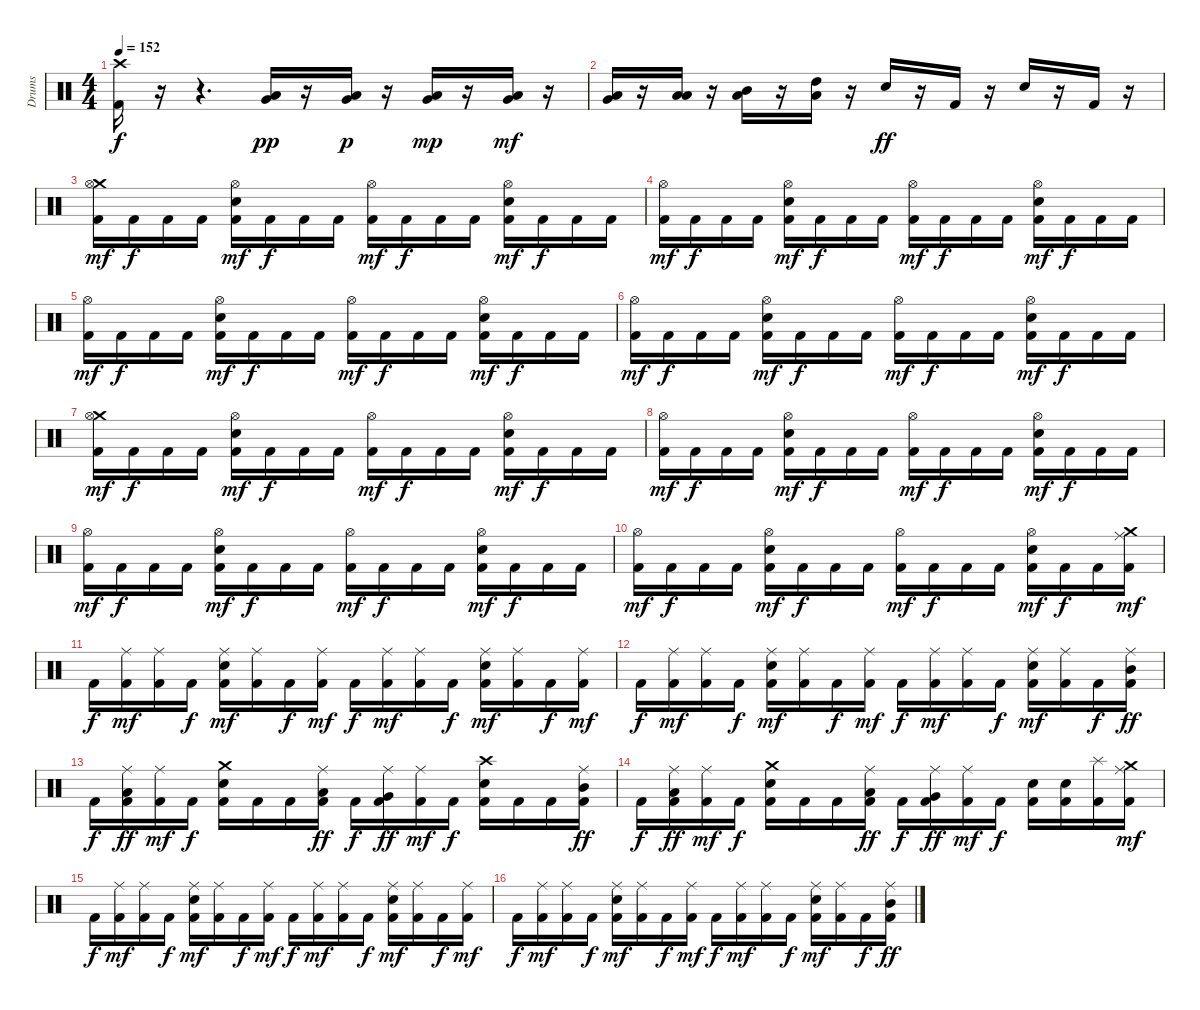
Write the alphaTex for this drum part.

\track ("Drums" "Drums") {instrument percussion}
\staff {score}
\articulation defaults
\ts (4 4)
\tempo 152
\clef neutral
\ks c
("Crash high (hit)" "Kick (hit) 2").16{dy f} r.16 r.4{d} ("Very Low Tom (hit)" "Low Floor Tom (hit)").16{dy pp} r.16 ("Very Low Tom (hit)" "Low Floor Tom (hit)").16{dy p} r.16 ("Very Low Tom (hit)" "Low Floor Tom (hit)").16{dy mp} r.16 ("Very Low Tom (hit)" "Low Floor Tom (hit)").16{dy mf} r.16 |
("Very Low Tom (hit)" "Low Floor Tom (hit)").16 r.16 ("Low Tom (hit)" "Low Floor Tom (hit)").16 r.16 ("Mid Tom (hit)" "Low Floor Tom (hit)").16 r.16 ("High Tom (hit)" "Low Floor Tom (hit)").16 r.16 "Snare (hit) 2".16{dy ff} r.16 "Kick (hit) 2".16 r.16 "Snare (hit) 2".16 r.16 "Kick (hit) 2".16 r.16 |
("Crash medium (hit)" "Hi-Hat (open)" "Kick (hit) 2").16{dy mf} "Kick (hit) 2".16{dy f} "Kick (hit) 2".16 "Kick (hit) 2".16 ("Hi-Hat (open)" "Snare (hit) 2" "Kick (hit) 2").16{dy mf} "Kick (hit) 2".16{dy f} "Kick (hit) 2".16 "Kick (hit) 2".16 ("Hi-Hat (open)" "Kick (hit) 2").16{dy mf} "Kick (hit) 2".16{dy f} "Kick (hit) 2".16 "Kick (hit) 2".16 ("Hi-Hat (open)" "Snare (hit) 2" "Kick (hit) 2").16{dy mf} "Kick (hit) 2".16{dy f} "Kick (hit) 2".16 "Kick (hit) 2".16 |
("Hi-Hat (open)" "Kick (hit) 2").16{dy mf} "Kick (hit) 2".16{dy f} "Kick (hit) 2".16 "Kick (hit) 2".16 ("Hi-Hat (open)" "Snare (hit) 2" "Kick (hit) 2").16{dy mf} "Kick (hit) 2".16{dy f} "Kick (hit) 2".16 "Kick (hit) 2".16 ("Hi-Hat (open)" "Kick (hit) 2").16{dy mf} "Kick (hit) 2".16{dy f} "Kick (hit) 2".16 "Kick (hit) 2".16 ("Hi-Hat (open)" "Snare (hit) 2" "Kick (hit) 2").16{dy mf} "Kick (hit) 2".16{dy f} "Kick (hit) 2".16 "Kick (hit) 2".16 |
("Hi-Hat (open)" "Kick (hit) 2").16{dy mf} "Kick (hit) 2".16{dy f} "Kick (hit) 2".16 "Kick (hit) 2".16 ("Hi-Hat (open)" "Snare (hit) 2" "Kick (hit) 2").16{dy mf} "Kick (hit) 2".16{dy f} "Kick (hit) 2".16 "Kick (hit) 2".16 ("Hi-Hat (open)" "Kick (hit) 2").16{dy mf} "Kick (hit) 2".16{dy f} "Kick (hit) 2".16 "Kick (hit) 2".16 ("Hi-Hat (open)" "Snare (hit) 2" "Kick (hit) 2").16{dy mf} "Kick (hit) 2".16{dy f} "Kick (hit) 2".16 "Kick (hit) 2".16 |
("Hi-Hat (open)" "Kick (hit) 2").16{dy mf} "Kick (hit) 2".16{dy f} "Kick (hit) 2".16 "Kick (hit) 2".16 ("Hi-Hat (open)" "Snare (hit) 2" "Kick (hit) 2").16{dy mf} "Kick (hit) 2".16{dy f} "Kick (hit) 2".16 "Kick (hit) 2".16 ("Hi-Hat (open)" "Kick (hit) 2").16{dy mf} "Kick (hit) 2".16{dy f} "Kick (hit) 2".16 "Kick (hit) 2".16 ("Hi-Hat (open)" "Snare (hit) 2" "Kick (hit) 2").16{dy mf} "Kick (hit) 2".16{dy f} "Kick (hit) 2".16 "Kick (hit) 2".16 |
("Crash medium (hit)" "Hi-Hat (open)" "Kick (hit) 2").16{dy mf} "Kick (hit) 2".16{dy f} "Kick (hit) 2".16 "Kick (hit) 2".16 ("Hi-Hat (open)" "Snare (hit) 2" "Kick (hit) 2").16{dy mf} "Kick (hit) 2".16{dy f} "Kick (hit) 2".16 "Kick (hit) 2".16 ("Hi-Hat (open)" "Kick (hit) 2").16{dy mf} "Kick (hit) 2".16{dy f} "Kick (hit) 2".16 "Kick (hit) 2".16 ("Hi-Hat (open)" "Snare (hit) 2" "Kick (hit) 2").16{dy mf} "Kick (hit) 2".16{dy f} "Kick (hit) 2".16 "Kick (hit) 2".16 |
("Hi-Hat (open)" "Kick (hit) 2").16{dy mf} "Kick (hit) 2".16{dy f} "Kick (hit) 2".16 "Kick (hit) 2".16 ("Hi-Hat (open)" "Snare (hit) 2" "Kick (hit) 2").16{dy mf} "Kick (hit) 2".16{dy f} "Kick (hit) 2".16 "Kick (hit) 2".16 ("Hi-Hat (open)" "Kick (hit) 2").16{dy mf} "Kick (hit) 2".16{dy f} "Kick (hit) 2".16 "Kick (hit) 2".16 ("Hi-Hat (open)" "Snare (hit) 2" "Kick (hit) 2").16{dy mf} "Kick (hit) 2".16{dy f} "Kick (hit) 2".16 "Kick (hit) 2".16 |
("Hi-Hat (open)" "Kick (hit) 2").16{dy mf} "Kick (hit) 2".16{dy f} "Kick (hit) 2".16 "Kick (hit) 2".16 ("Hi-Hat (open)" "Snare (hit) 2" "Kick (hit) 2").16{dy mf} "Kick (hit) 2".16{dy f} "Kick (hit) 2".16 "Kick (hit) 2".16 ("Hi-Hat (open)" "Kick (hit) 2").16{dy mf} "Kick (hit) 2".16{dy f} "Kick (hit) 2".16 "Kick (hit) 2".16 ("Hi-Hat (open)" "Snare (hit) 2" "Kick (hit) 2").16{dy mf} "Kick (hit) 2".16{dy f} "Kick (hit) 2".16 "Kick (hit) 2".16 |
("Hi-Hat (open)" "Kick (hit) 2").16{dy mf} "Kick (hit) 2".16{dy f} "Kick (hit) 2".16 "Kick (hit) 2".16 ("Hi-Hat (open)" "Snare (hit) 2" "Kick (hit) 2").16{dy mf} "Kick (hit) 2".16{dy f} "Kick (hit) 2".16 "Kick (hit) 2".16 ("Hi-Hat (open)" "Kick (hit) 2").16{dy mf} "Kick (hit) 2".16{dy f} "Kick (hit) 2".16 "Kick (hit) 2".16 ("Hi-Hat (open)" "Snare (hit) 2" "Kick (hit) 2").16{dy mf} "Kick (hit) 2".16{dy f} "Kick (hit) 2".16 ("Crash medium (hit)" "Ride (middle)" "Kick (hit) 2").16{dy mf} |
"Kick (hit) 2".16{dy f} ("Ride (middle)" "Kick (hit) 2").16{dy mf} ("Ride (middle)" "Kick (hit) 2").16 "Kick (hit) 2".16{dy f} ("Ride (middle)" "Snare (hit) 2" "Kick (hit) 2").16{dy mf} ("Ride (middle)" "Kick (hit) 2").16 "Kick (hit) 2".16{dy f} ("Ride (middle)" "Kick (hit) 2").16{dy mf} "Kick (hit) 2".16{dy f} ("Ride (middle)" "Kick (hit) 2").16{dy mf} ("Ride (middle)" "Kick (hit) 2").16 "Kick (hit) 2".16{dy f} ("Ride (middle)" "Snare (hit) 2" "Kick (hit) 2").16{dy mf} ("Ride (middle)" "Kick (hit) 2").16 "Kick (hit) 2".16{dy f} ("Ride (middle)" "Kick (hit) 2").16{dy mf} |
"Kick (hit) 2".16{dy f} ("Ride (middle)" "Kick (hit) 2").16{dy mf} ("Ride (middle)" "Kick (hit) 2").16 "Kick (hit) 2".16{dy f} ("Ride (middle)" "Snare (hit) 2" "Kick (hit) 2").16{dy mf} ("Ride (middle)" "Kick (hit) 2").16 "Kick (hit) 2".16{dy f} ("Ride (middle)" "Kick (hit) 2").16{dy mf} "Kick (hit) 2".16{dy f} ("Ride (middle)" "Kick (hit) 2").16{dy mf} ("Ride (middle)" "Kick (hit) 2").16 "Kick (hit) 2".16{dy f} ("Ride (middle)" "Snare (hit) 2" "Kick (hit) 2").16{dy mf} ("Ride (middle)" "Kick (hit) 2").16 "Kick (hit) 2".16{dy f} ("Ride (middle)" "Mid Tom (hit)" "Kick (hit) 2").16{dy ff} |
"Kick (hit) 2".16{dy f} ("Ride (middle)" "Low Tom (hit)" "Kick (hit) 2").16{dy ff} ("Ride (middle)" "Kick (hit) 2").16{dy mf} "Kick (hit) 2".16{dy f} ("Crash medium (hit)" "Snare (hit) 2" "Kick (hit) 2").16 "Kick (hit) 2".16 "Kick (hit) 2".16 ("Ride (middle)" "Low Tom (hit)" "Kick (hit) 2").16{dy ff} "Kick (hit) 2".16{dy f} ("Ride (middle)" "Very Low Tom (hit)" "Kick (hit) 2").16{dy ff} ("Ride (middle)" "Kick (hit) 2").16{dy mf} "Kick (hit) 2".16{dy f} ("Crash high (hit)" "Snare (hit) 2" "Kick (hit) 2").16 "Kick (hit) 2".16 "Kick (hit) 2".16 ("Ride (middle)" "Mid Tom (hit)" "Kick (hit) 2").16{dy ff} |
"Kick (hit) 2".16{dy f} ("Ride (middle)" "Low Tom (hit)" "Kick (hit) 2").16{dy ff} ("Ride (middle)" "Kick (hit) 2").16{dy mf} "Kick (hit) 2".16{dy f} ("Crash medium (hit)" "Snare (hit) 2" "Kick (hit) 2").16 "Kick (hit) 2".16 "Kick (hit) 2".16 ("Ride (middle)" "Low Tom (hit)" "Kick (hit) 2").16{dy ff} "Kick (hit) 2".16{dy f} ("Ride (middle)" "Very Low Tom (hit)" "Kick (hit) 2").16{dy ff} ("Ride (middle)" "Kick (hit) 2").16{dy mf} "Kick (hit) 2".16{dy f} ("Snare (hit) 2" "Kick (hit) 2").16 ("Snare (hit) 2" "Kick (hit) 2").16 ("Splash (hit)" "Kick (hit) 2").16 ("Crash medium (hit)" "Ride (middle)" "Kick (hit) 2").16{dy mf} |
"Kick (hit) 2".16{dy f} ("Ride (middle)" "Kick (hit) 2").16{dy mf} ("Ride (middle)" "Kick (hit) 2").16 "Kick (hit) 2".16{dy f} ("Ride (middle)" "Snare (hit) 2" "Kick (hit) 2").16{dy mf} ("Ride (middle)" "Kick (hit) 2").16 "Kick (hit) 2".16{dy f} ("Ride (middle)" "Kick (hit) 2").16{dy mf} "Kick (hit) 2".16{dy f} ("Ride (middle)" "Kick (hit) 2").16{dy mf} ("Ride (middle)" "Kick (hit) 2").16 "Kick (hit) 2".16{dy f} ("Ride (middle)" "Snare (hit) 2" "Kick (hit) 2").16{dy mf} ("Ride (middle)" "Kick (hit) 2").16 "Kick (hit) 2".16{dy f} ("Ride (middle)" "Kick (hit) 2").16{dy mf} |
"Kick (hit) 2".16{dy f} ("Ride (middle)" "Kick (hit) 2").16{dy mf} ("Ride (middle)" "Kick (hit) 2").16 "Kick (hit) 2".16{dy f} ("Ride (middle)" "Snare (hit) 2" "Kick (hit) 2").16{dy mf} ("Ride (middle)" "Kick (hit) 2").16 "Kick (hit) 2".16{dy f} ("Ride (middle)" "Kick (hit) 2").16{dy mf} "Kick (hit) 2".16{dy f} ("Ride (middle)" "Kick (hit) 2").16{dy mf} ("Ride (middle)" "Kick (hit) 2").16 "Kick (hit) 2".16{dy f} ("Ride (middle)" "Snare (hit) 2" "Kick (hit) 2").16{dy mf} ("Ride (middle)" "Kick (hit) 2").16 "Kick (hit) 2".16{dy f} ("Ride (middle)" "Mid Tom (hit)" "Kick (hit) 2").16{dy ff}
